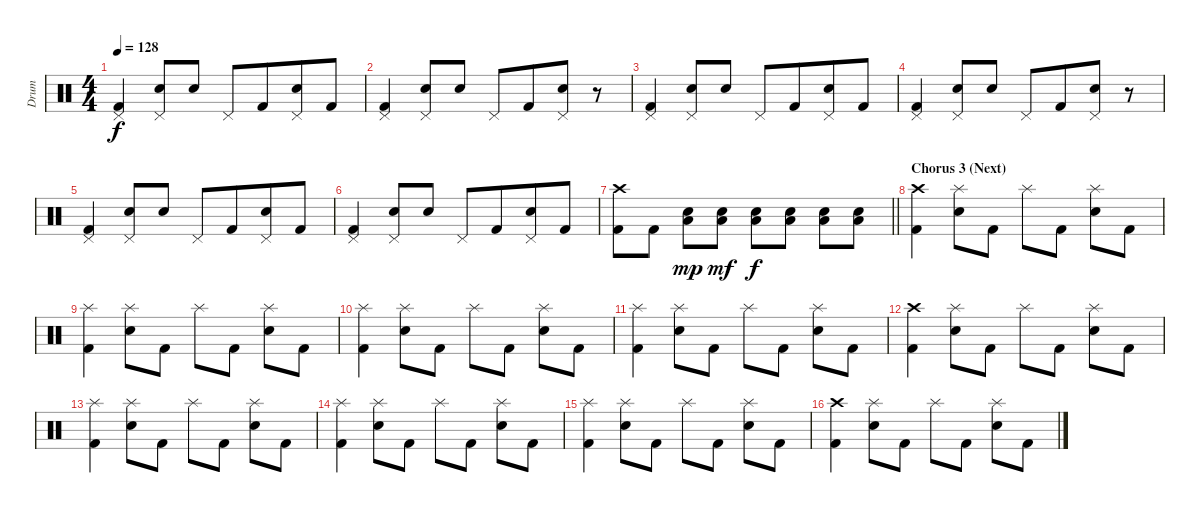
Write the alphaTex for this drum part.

\track ("Drum" "Drum") {instrument percussion}
\staff {score}
\articulation defaults
\ts (4 4)
\tempo 128
\clef neutral
\ks c
("Pedal Hi-Hat (hit)" "Kick (hit) 2").4{dy f} ("Electric Snare (hit)" "Pedal Hi-Hat (hit)").8 "Electric Snare (hit)".8 "Pedal Hi-Hat (hit)".8 "Kick (hit) 2".8{beam merge} ("Electric Snare (hit)" "Pedal Hi-Hat (hit)").8 "Kick (hit) 2".8 |
("Pedal Hi-Hat (hit)" "Kick (hit) 2").4 ("Electric Snare (hit)" "Pedal Hi-Hat (hit)").8 "Electric Snare (hit)".8 "Pedal Hi-Hat (hit)".8 "Kick (hit) 2".8{beam merge} ("Electric Snare (hit)" "Pedal Hi-Hat (hit)").8 r.8 |
("Pedal Hi-Hat (hit)" "Kick (hit) 2").4 ("Electric Snare (hit)" "Pedal Hi-Hat (hit)").8 "Electric Snare (hit)".8 "Pedal Hi-Hat (hit)".8 "Kick (hit) 2".8{beam merge} ("Electric Snare (hit)" "Pedal Hi-Hat (hit)").8 "Kick (hit) 2".8 |
("Pedal Hi-Hat (hit)" "Kick (hit) 2").4 ("Electric Snare (hit)" "Pedal Hi-Hat (hit)").8 "Electric Snare (hit)".8 "Pedal Hi-Hat (hit)".8 "Kick (hit) 2".8{beam merge} ("Electric Snare (hit)" "Pedal Hi-Hat (hit)").8 r.8 |
("Pedal Hi-Hat (hit)" "Kick (hit) 2").4 ("Electric Snare (hit)" "Pedal Hi-Hat (hit)").8 "Electric Snare (hit)".8 "Pedal Hi-Hat (hit)".8 "Kick (hit) 2".8{beam merge} ("Electric Snare (hit)" "Pedal Hi-Hat (hit)").8 "Kick (hit) 2".8 |
("Pedal Hi-Hat (hit)" "Kick (hit) 2").4 ("Electric Snare (hit)" "Pedal Hi-Hat (hit)").8 "Electric Snare (hit)".8 "Pedal Hi-Hat (hit)".8 "Kick (hit) 2".8{beam merge} ("Electric Snare (hit)" "Pedal Hi-Hat (hit)").8 "Kick (hit) 2".8 |
\barLineRight lightlight
("Crash high (hit)" "Kick (hit) 2").8 "Kick (hit) 2".8 ("Electric Snare (hit)" "Low Floor Tom (hit)").8{dy mp} ("Electric Snare (hit)" "Low Floor Tom (hit)").8{dy mf} ("Electric Snare (hit)" "Low Floor Tom (hit)").8{dy f} ("Electric Snare (hit)" "Low Floor Tom (hit)").8 ("Electric Snare (hit)" "Low Floor Tom (hit)").8 ("Electric Snare (hit)" "Low Floor Tom (hit)").8 |
\section ("" "Chorus 3 (Next)")
("Crash high (hit)" "Kick (hit) 2").4 ("Splash (hit)" "Electric Snare (hit)").8 "Kick (hit) 2".8 "Splash (hit)".8 "Kick (hit) 2".8 ("Splash (hit)" "Electric Snare (hit)").8 "Kick (hit) 2".8 |
("Splash (hit)" "Kick (hit) 2").4 ("Splash (hit)" "Electric Snare (hit)").8 "Kick (hit) 2".8 "Splash (hit)".8 "Kick (hit) 2".8 ("Splash (hit)" "Electric Snare (hit)").8 "Kick (hit) 2".8 |
("Splash (hit)" "Kick (hit) 2").4 ("Splash (hit)" "Electric Snare (hit)").8 "Kick (hit) 2".8 "Splash (hit)".8 "Kick (hit) 2".8 ("Splash (hit)" "Electric Snare (hit)").8 "Kick (hit) 2".8 |
("Splash (hit)" "Kick (hit) 2").4 ("Splash (hit)" "Electric Snare (hit)").8 "Kick (hit) 2".8 "Splash (hit)".8 "Kick (hit) 2".8 ("Splash (hit)" "Electric Snare (hit)").8 "Kick (hit) 2".8 |
("Crash high (hit)" "Kick (hit) 2").4 ("Splash (hit)" "Electric Snare (hit)").8 "Kick (hit) 2".8 "Splash (hit)".8 "Kick (hit) 2".8 ("Splash (hit)" "Electric Snare (hit)").8 "Kick (hit) 2".8 |
("Splash (hit)" "Kick (hit) 2").4 ("Splash (hit)" "Electric Snare (hit)").8 "Kick (hit) 2".8 "Splash (hit)".8 "Kick (hit) 2".8 ("Splash (hit)" "Electric Snare (hit)").8 "Kick (hit) 2".8 |
("Splash (hit)" "Kick (hit) 2").4 ("Splash (hit)" "Electric Snare (hit)").8 "Kick (hit) 2".8 "Splash (hit)".8 "Kick (hit) 2".8 ("Splash (hit)" "Electric Snare (hit)").8 "Kick (hit) 2".8 |
("Splash (hit)" "Kick (hit) 2").4 ("Splash (hit)" "Electric Snare (hit)").8 "Kick (hit) 2".8 "Splash (hit)".8 "Kick (hit) 2".8 ("Splash (hit)" "Electric Snare (hit)").8 "Kick (hit) 2".8 |
("Crash high (hit)" "Kick (hit) 2").4 ("Splash (hit)" "Electric Snare (hit)").8 "Kick (hit) 2".8 "Splash (hit)".8 "Kick (hit) 2".8 ("Splash (hit)" "Electric Snare (hit)").8 "Kick (hit) 2".8
